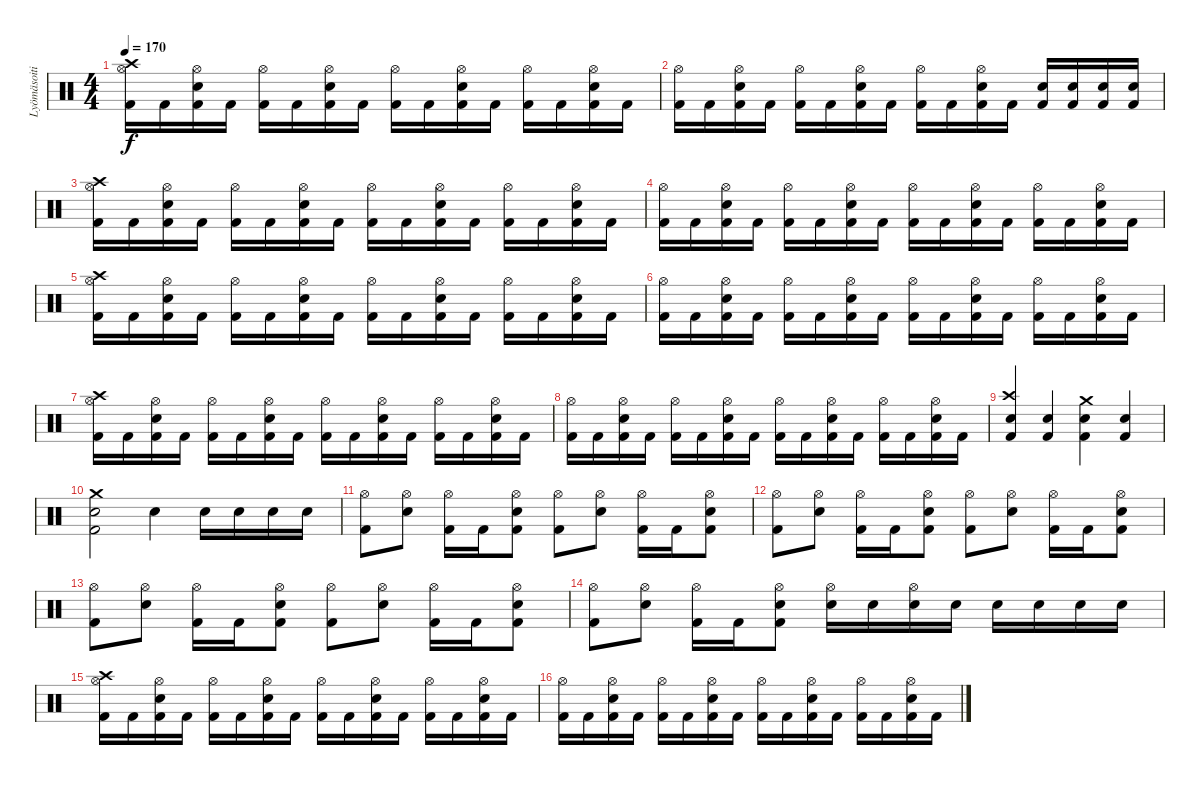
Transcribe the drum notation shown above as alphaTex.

\track ("Lyömäsoitin" "Lyömäsoiti") {instrument percussion}
\staff {score}
\articulation defaults
\ts (4 4)
\tempo 170
\clef neutral
\ks c
("Kick (hit) 2" "Crash high (hit)" "Hi-Hat (open)").16{dy f} "Kick (hit) 2".16 ("Kick (hit) 2" "Snare (hit) 2" "Hi-Hat (open)").16 "Kick (hit) 2".16 ("Kick (hit) 2" "Hi-Hat (open)").16 "Kick (hit) 2".16 ("Kick (hit) 2" "Snare (hit) 2" "Hi-Hat (open)").16 "Kick (hit) 2".16 ("Kick (hit) 2" "Hi-Hat (open)").16 "Kick (hit) 2".16 ("Kick (hit) 2" "Snare (hit) 2" "Hi-Hat (open)").16 "Kick (hit) 2".16 ("Kick (hit) 2" "Hi-Hat (open)").16 "Kick (hit) 2".16 ("Kick (hit) 2" "Snare (hit) 2" "Hi-Hat (open)").16 "Kick (hit) 2".16 |
("Kick (hit) 2" "Hi-Hat (open)").16 "Kick (hit) 2".16 ("Kick (hit) 2" "Snare (hit) 2" "Hi-Hat (open)").16 "Kick (hit) 2".16 ("Kick (hit) 2" "Hi-Hat (open)").16 "Kick (hit) 2".16 ("Kick (hit) 2" "Snare (hit) 2" "Hi-Hat (open)").16 "Kick (hit) 2".16 ("Kick (hit) 2" "Hi-Hat (open)").16 "Kick (hit) 2".16 ("Kick (hit) 2" "Snare (hit) 2" "Hi-Hat (open)").16 "Kick (hit) 2".16 ("Kick (hit) 2" "Snare (hit) 2").16 ("Kick (hit) 2" "Snare (hit) 2").16 ("Kick (hit) 2" "Snare (hit) 2").16 ("Kick (hit) 2" "Snare (hit) 2").16 |
("Kick (hit) 2" "Crash high (hit)" "Hi-Hat (open)").16 "Kick (hit) 2".16 ("Kick (hit) 2" "Snare (hit) 2" "Hi-Hat (open)").16 "Kick (hit) 2".16 ("Kick (hit) 2" "Hi-Hat (open)").16 "Kick (hit) 2".16 ("Kick (hit) 2" "Snare (hit) 2" "Hi-Hat (open)").16 "Kick (hit) 2".16 ("Kick (hit) 2" "Hi-Hat (open)").16 "Kick (hit) 2".16 ("Kick (hit) 2" "Snare (hit) 2" "Hi-Hat (open)").16 "Kick (hit) 2".16 ("Kick (hit) 2" "Hi-Hat (open)").16 "Kick (hit) 2".16 ("Kick (hit) 2" "Snare (hit) 2" "Hi-Hat (open)").16 "Kick (hit) 2".16 |
("Kick (hit) 2" "Hi-Hat (open)").16 "Kick (hit) 2".16 ("Kick (hit) 2" "Snare (hit) 2" "Hi-Hat (open)").16 "Kick (hit) 2".16 ("Kick (hit) 2" "Hi-Hat (open)").16 "Kick (hit) 2".16 ("Kick (hit) 2" "Snare (hit) 2" "Hi-Hat (open)").16 "Kick (hit) 2".16 ("Kick (hit) 2" "Hi-Hat (open)").16 "Kick (hit) 2".16 ("Kick (hit) 2" "Snare (hit) 2" "Hi-Hat (open)").16 "Kick (hit) 2".16 ("Kick (hit) 2" "Hi-Hat (open)").16 "Kick (hit) 2".16 ("Kick (hit) 2" "Snare (hit) 2" "Hi-Hat (open)").16 "Kick (hit) 2".16 |
("Kick (hit) 2" "Crash high (hit)" "Hi-Hat (open)").16 "Kick (hit) 2".16 ("Kick (hit) 2" "Snare (hit) 2" "Hi-Hat (open)").16 "Kick (hit) 2".16 ("Kick (hit) 2" "Hi-Hat (open)").16 "Kick (hit) 2".16 ("Kick (hit) 2" "Snare (hit) 2" "Hi-Hat (open)").16 "Kick (hit) 2".16 ("Kick (hit) 2" "Hi-Hat (open)").16 "Kick (hit) 2".16 ("Kick (hit) 2" "Snare (hit) 2" "Hi-Hat (open)").16 "Kick (hit) 2".16 ("Kick (hit) 2" "Hi-Hat (open)").16 "Kick (hit) 2".16 ("Kick (hit) 2" "Snare (hit) 2" "Hi-Hat (open)").16 "Kick (hit) 2".16 |
("Kick (hit) 2" "Hi-Hat (open)").16 "Kick (hit) 2".16 ("Kick (hit) 2" "Snare (hit) 2" "Hi-Hat (open)").16 "Kick (hit) 2".16 ("Kick (hit) 2" "Hi-Hat (open)").16 "Kick (hit) 2".16 ("Kick (hit) 2" "Snare (hit) 2" "Hi-Hat (open)").16 "Kick (hit) 2".16 ("Kick (hit) 2" "Hi-Hat (open)").16 "Kick (hit) 2".16 ("Kick (hit) 2" "Snare (hit) 2" "Hi-Hat (open)").16 "Kick (hit) 2".16 ("Kick (hit) 2" "Hi-Hat (open)").16 "Kick (hit) 2".16 ("Kick (hit) 2" "Snare (hit) 2" "Hi-Hat (open)").16 "Kick (hit) 2".16 |
("Kick (hit) 2" "Crash high (hit)" "Hi-Hat (open)").16 "Kick (hit) 2".16 ("Kick (hit) 2" "Snare (hit) 2" "Hi-Hat (open)").16 "Kick (hit) 2".16 ("Kick (hit) 2" "Hi-Hat (open)").16 "Kick (hit) 2".16 ("Kick (hit) 2" "Snare (hit) 2" "Hi-Hat (open)").16 "Kick (hit) 2".16 ("Kick (hit) 2" "Hi-Hat (open)").16 "Kick (hit) 2".16 ("Kick (hit) 2" "Snare (hit) 2" "Hi-Hat (open)").16 "Kick (hit) 2".16 ("Kick (hit) 2" "Hi-Hat (open)").16 "Kick (hit) 2".16 ("Kick (hit) 2" "Snare (hit) 2" "Hi-Hat (open)").16 "Kick (hit) 2".16 |
("Kick (hit) 2" "Hi-Hat (open)").16 "Kick (hit) 2".16 ("Kick (hit) 2" "Snare (hit) 2" "Hi-Hat (open)").16 "Kick (hit) 2".16 ("Kick (hit) 2" "Hi-Hat (open)").16 "Kick (hit) 2".16 ("Kick (hit) 2" "Snare (hit) 2" "Hi-Hat (open)").16 "Kick (hit) 2".16 ("Kick (hit) 2" "Hi-Hat (open)").16 "Kick (hit) 2".16 ("Kick (hit) 2" "Snare (hit) 2" "Hi-Hat (open)").16 "Kick (hit) 2".16 ("Kick (hit) 2" "Hi-Hat (open)").16 "Kick (hit) 2".16 ("Kick (hit) 2" "Snare (hit) 2" "Hi-Hat (open)").16 "Kick (hit) 2".16 |
("Kick (hit) 2" "Snare (hit) 2" "Crash high (hit)").4 ("Kick (hit) 2" "Snare (hit) 2").4 ("Kick (hit) 2" "Snare (hit) 2" "Crash medium (hit)").4 ("Kick (hit) 2" "Snare (hit) 2").4 |
("Kick (hit) 2" "Snare (hit) 2" "Crash medium (hit)").2 "Electric Snare (hit)".4 "Snare (hit) 2".16 "Snare (hit) 2".16 "Snare (hit) 2".16 "Snare (hit) 2".16 |
("Kick (hit) 2" "Hi-Hat (open)").8 ("Snare (hit) 2" "Hi-Hat (open)").8 ("Kick (hit) 2" "Hi-Hat (open)").16 "Kick (hit) 2".16 ("Kick (hit) 2" "Snare (hit) 2" "Hi-Hat (open)").8 ("Kick (hit) 2" "Hi-Hat (open)").8 ("Snare (hit) 2" "Hi-Hat (open)").8 ("Kick (hit) 2" "Hi-Hat (open)").16 "Kick (hit) 2".16 ("Kick (hit) 2" "Snare (hit) 2" "Hi-Hat (open)").8 |
("Kick (hit) 2" "Hi-Hat (open)").8 ("Snare (hit) 2" "Hi-Hat (open)").8 ("Kick (hit) 2" "Hi-Hat (open)").16 "Kick (hit) 2".16 ("Kick (hit) 2" "Snare (hit) 2" "Hi-Hat (open)").8 ("Kick (hit) 2" "Hi-Hat (open)").8 ("Snare (hit) 2" "Hi-Hat (open)").8 ("Kick (hit) 2" "Hi-Hat (open)").16 "Kick (hit) 2".16 ("Kick (hit) 2" "Snare (hit) 2" "Hi-Hat (open)").8 |
("Kick (hit) 2" "Hi-Hat (open)").8 ("Snare (hit) 2" "Hi-Hat (open)").8 ("Kick (hit) 2" "Hi-Hat (open)").16 "Kick (hit) 2".16 ("Kick (hit) 2" "Snare (hit) 2" "Hi-Hat (open)").8 ("Kick (hit) 2" "Hi-Hat (open)").8 ("Snare (hit) 2" "Hi-Hat (open)").8 ("Kick (hit) 2" "Hi-Hat (open)").16 "Kick (hit) 2".16 ("Kick (hit) 2" "Snare (hit) 2" "Hi-Hat (open)").8 |
("Kick (hit) 2" "Hi-Hat (open)").8 ("Snare (hit) 2" "Hi-Hat (open)").8 ("Kick (hit) 2" "Hi-Hat (open)").16 "Kick (hit) 2".16 ("Kick (hit) 2" "Snare (hit) 2" "Hi-Hat (open)").8 ("Snare (hit) 2" "Hi-Hat (open)").16 "Snare (hit) 2".16 ("Snare (hit) 2" "Hi-Hat (open)").16 "Snare (hit) 2".16 "Snare (hit) 2".16 "Snare (hit) 2".16 "Snare (hit) 2".16 "Snare (hit) 2".16 |
("Kick (hit) 2" "Crash high (hit)" "Hi-Hat (open)").16 "Kick (hit) 2".16 ("Kick (hit) 2" "Snare (hit) 2" "Hi-Hat (open)").16 "Kick (hit) 2".16 ("Kick (hit) 2" "Hi-Hat (open)").16 "Kick (hit) 2".16 ("Kick (hit) 2" "Snare (hit) 2" "Hi-Hat (open)").16 "Kick (hit) 2".16 ("Kick (hit) 2" "Hi-Hat (open)").16 "Kick (hit) 2".16 ("Kick (hit) 2" "Snare (hit) 2" "Hi-Hat (open)").16 "Kick (hit) 2".16 ("Kick (hit) 2" "Hi-Hat (open)").16 "Kick (hit) 2".16 ("Kick (hit) 2" "Snare (hit) 2" "Hi-Hat (open)").16 "Kick (hit) 2".16 |
("Kick (hit) 2" "Hi-Hat (open)").16 "Kick (hit) 2".16 ("Kick (hit) 2" "Snare (hit) 2" "Hi-Hat (open)").16 "Kick (hit) 2".16 ("Kick (hit) 2" "Hi-Hat (open)").16 "Kick (hit) 2".16 ("Kick (hit) 2" "Snare (hit) 2" "Hi-Hat (open)").16 "Kick (hit) 2".16 ("Kick (hit) 2" "Hi-Hat (open)").16 "Kick (hit) 2".16 ("Kick (hit) 2" "Snare (hit) 2" "Hi-Hat (open)").16 "Kick (hit) 2".16 ("Kick (hit) 2" "Hi-Hat (open)").16 "Kick (hit) 2".16 ("Kick (hit) 2" "Snare (hit) 2" "Hi-Hat (open)").16 "Kick (hit) 2".16
